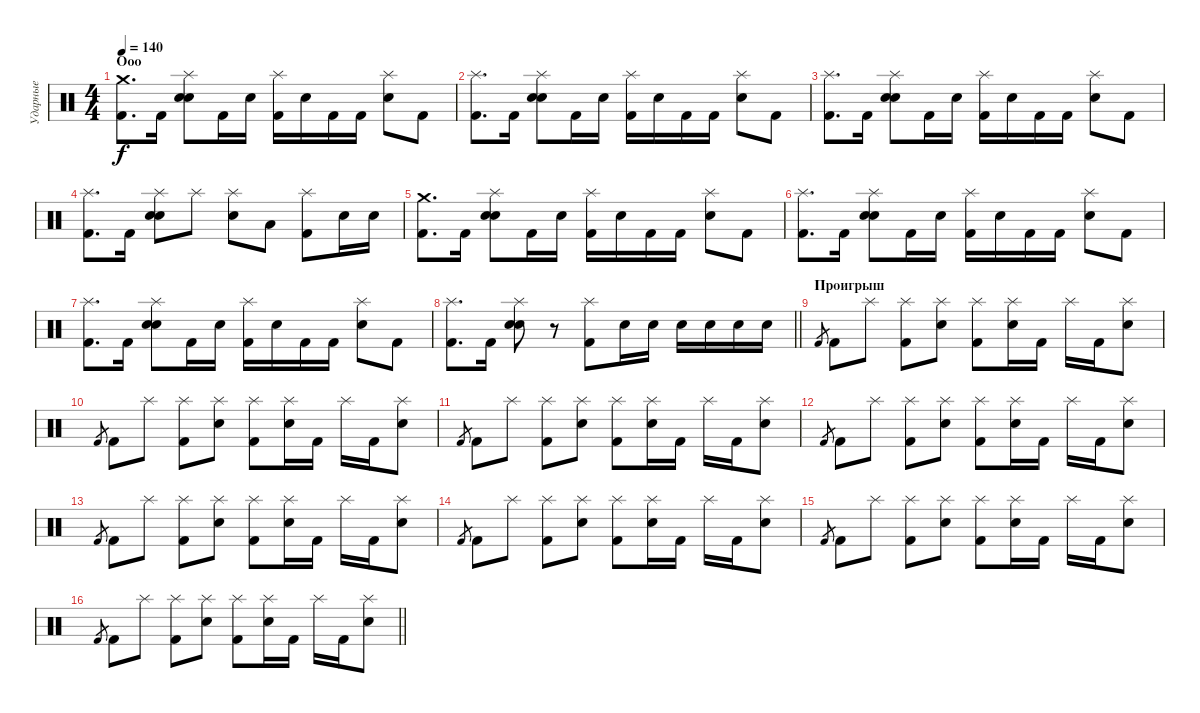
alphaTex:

\track ("Ударные" "Ударные") {instrument percussion}
\staff {score}
\articulation defaults
\ts (4 4)
\section ("" "Ооо")
\tempo 140
\clef neutral
\ks c
("Crash medium (hit)" "Kick (hit) 2").8{d dy f} "Kick (hit) 2".16 ("Splash (hit)" "Electric Snare (hit)" "Snare (hit) 2").8 "Kick (hit) 2".16 "Electric Snare (hit)".16 ("Splash (hit)" "Kick (hit) 2").16 "Electric Snare (hit)".16 "Kick (hit) 2".16 "Kick (hit) 2".16 ("Splash (hit)" "Electric Snare (hit)").8 "Kick (hit) 2".8 |
("Splash (hit)" "Kick (hit) 2").8{d} "Kick (hit) 2".16 ("Splash (hit)" "Electric Snare (hit)" "Snare (hit) 2").8 "Kick (hit) 2".16 "Electric Snare (hit)".16 ("Splash (hit)" "Kick (hit) 2").16 "Electric Snare (hit)".16 "Kick (hit) 2".16 "Kick (hit) 2".16 ("Splash (hit)" "Electric Snare (hit)").8 "Kick (hit) 2".8 |
("Splash (hit)" "Kick (hit) 2").8{d} "Kick (hit) 2".16 ("Splash (hit)" "Electric Snare (hit)" "Snare (hit) 2").8 "Kick (hit) 2".16 "Electric Snare (hit)".16 ("Splash (hit)" "Kick (hit) 2").16 "Electric Snare (hit)".16 "Kick (hit) 2".16 "Kick (hit) 2".16 ("Splash (hit)" "Electric Snare (hit)").8 "Kick (hit) 2".8 |
("Splash (hit)" "Kick (hit) 2").8{d} "Kick (hit) 2".16 ("Splash (hit)" "Electric Snare (hit)" "Snare (hit) 2").8 "Splash (hit)".8 ("Splash (hit)" "Electric Snare (hit)").8 "Low Tom (hit)".8 ("Splash (hit)" "Kick (hit) 2").8 "Electric Snare (hit)".16 "Electric Snare (hit)".16 |
("Crash medium (hit)" "Kick (hit) 2").8{d} "Kick (hit) 2".16 ("Splash (hit)" "Electric Snare (hit)" "Snare (hit) 2").8 "Kick (hit) 2".16 "Electric Snare (hit)".16 ("Splash (hit)" "Kick (hit) 2").16 "Electric Snare (hit)".16 "Kick (hit) 2".16 "Kick (hit) 2".16 ("Splash (hit)" "Electric Snare (hit)").8 "Kick (hit) 2".8 |
("Splash (hit)" "Kick (hit) 2").8{d} "Kick (hit) 2".16 ("Splash (hit)" "Electric Snare (hit)" "Snare (hit) 2").8 "Kick (hit) 2".16 "Electric Snare (hit)".16 ("Splash (hit)" "Kick (hit) 2").16 "Electric Snare (hit)".16 "Kick (hit) 2".16 "Kick (hit) 2".16 ("Splash (hit)" "Electric Snare (hit)").8 "Kick (hit) 2".8 |
("Splash (hit)" "Kick (hit) 2").8{d} "Kick (hit) 2".16 ("Splash (hit)" "Electric Snare (hit)" "Snare (hit) 2").8 "Kick (hit) 2".16 "Electric Snare (hit)".16 ("Splash (hit)" "Kick (hit) 2").16 "Electric Snare (hit)".16 "Kick (hit) 2".16 "Kick (hit) 2".16 ("Splash (hit)" "Electric Snare (hit)").8 "Kick (hit) 2".8 |
\barLineRight lightlight
("Splash (hit)" "Kick (hit) 2").8{d} "Kick (hit) 2".16 ("Splash (hit)" "Electric Snare (hit)" "Snare (hit) 2").8 r.8 ("Splash (hit)" "Kick (hit) 2").8 "Electric Snare (hit)".16 "Electric Snare (hit)".16 "Electric Snare (hit)".16 "Electric Snare (hit)".16 "Electric Snare (hit)".16 "Electric Snare (hit)".16 |
\section ("" "Проигрыш")
"Kick (hit) 2".8{gr} "Kick (hit) 2".8 "Splash (hit)".8 ("Splash (hit)" "Kick (hit) 2").8 ("Splash (hit)" "Electric Snare (hit)").8 ("Splash (hit)" "Kick (hit) 2").8 ("Splash (hit)" "Electric Snare (hit)").16 "Kick (hit) 2".16 "Splash (hit)".16 "Kick (hit) 2".16 ("Splash (hit)" "Electric Snare (hit)").8 |
"Kick (hit) 2".8{gr} "Kick (hit) 2".8 "Splash (hit)".8 ("Splash (hit)" "Kick (hit) 2").8 ("Splash (hit)" "Electric Snare (hit)").8 ("Splash (hit)" "Kick (hit) 2").8 ("Splash (hit)" "Electric Snare (hit)").16 "Kick (hit) 2".16 "Splash (hit)".16 "Kick (hit) 2".16 ("Splash (hit)" "Electric Snare (hit)").8 |
"Kick (hit) 2".8{gr} "Kick (hit) 2".8 "Splash (hit)".8 ("Splash (hit)" "Kick (hit) 2").8 ("Splash (hit)" "Electric Snare (hit)").8 ("Splash (hit)" "Kick (hit) 2").8 ("Splash (hit)" "Electric Snare (hit)").16 "Kick (hit) 2".16 "Splash (hit)".16 "Kick (hit) 2".16 ("Splash (hit)" "Electric Snare (hit)").8 |
"Kick (hit) 2".8{gr} "Kick (hit) 2".8 "Splash (hit)".8 ("Splash (hit)" "Kick (hit) 2").8 ("Splash (hit)" "Electric Snare (hit)").8 ("Splash (hit)" "Kick (hit) 2").8 ("Splash (hit)" "Electric Snare (hit)").16 "Kick (hit) 2".16 "Splash (hit)".16 "Kick (hit) 2".16 ("Splash (hit)" "Electric Snare (hit)").8 |
"Kick (hit) 2".8{gr} "Kick (hit) 2".8 "Splash (hit)".8 ("Splash (hit)" "Kick (hit) 2").8 ("Splash (hit)" "Electric Snare (hit)").8 ("Splash (hit)" "Kick (hit) 2").8 ("Splash (hit)" "Electric Snare (hit)").16 "Kick (hit) 2".16 "Splash (hit)".16 "Kick (hit) 2".16 ("Splash (hit)" "Electric Snare (hit)").8 |
"Kick (hit) 2".8{gr} "Kick (hit) 2".8 "Splash (hit)".8 ("Splash (hit)" "Kick (hit) 2").8 ("Splash (hit)" "Electric Snare (hit)").8 ("Splash (hit)" "Kick (hit) 2").8 ("Splash (hit)" "Electric Snare (hit)").16 "Kick (hit) 2".16 "Splash (hit)".16 "Kick (hit) 2".16 ("Splash (hit)" "Electric Snare (hit)").8 |
"Kick (hit) 2".8{gr} "Kick (hit) 2".8 "Splash (hit)".8 ("Splash (hit)" "Kick (hit) 2").8 ("Splash (hit)" "Electric Snare (hit)").8 ("Splash (hit)" "Kick (hit) 2").8 ("Splash (hit)" "Electric Snare (hit)").16 "Kick (hit) 2".16 "Splash (hit)".16 "Kick (hit) 2".16 ("Splash (hit)" "Electric Snare (hit)").8 |
\barLineRight lightlight "Kick (hit) 2".8{gr} "Kick (hit) 2".8 "Splash (hit)".8
("Splash (hit)" "Kick (hit) 2").8 ("Splash (hit)" "Electric Snare (hit)").8 ("Splash (hit)" "Kick (hit) 2").8 ("Splash (hit)" "Electric Snare (hit)").16 "Kick (hit) 2".16 "Splash (hit)".16 "Kick (hit) 2".16 ("Splash (hit)" "Electric Snare (hit)").8
